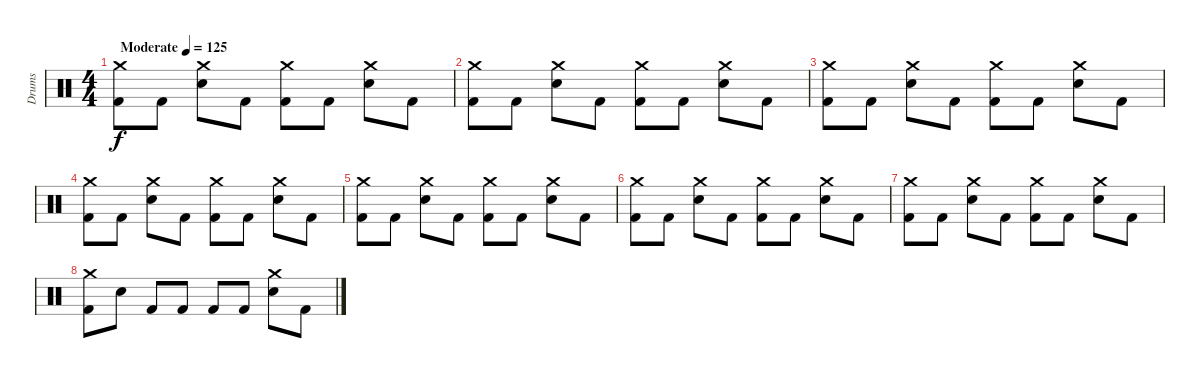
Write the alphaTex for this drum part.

\track ("Drums" "Drums") {instrument percussion}
\staff {score}
\articulation defaults
\ts (4 4)
\tempo (125 "Moderate")
\clef neutral
\ks c
("Crash medium (hit)" "Kick (hit) 2").8{dy f} "Kick (hit) 2".8 ("Crash medium (hit)" "Electric Snare (hit)").8 "Kick (hit) 2".8 ("Crash medium (hit)" "Kick (hit) 2").8 "Kick (hit) 2".8 ("Crash medium (hit)" "Electric Snare (hit)").8 "Kick (hit) 2".8 |
("Crash medium (hit)" "Kick (hit) 2").8 "Kick (hit) 2".8 ("Crash medium (hit)" "Electric Snare (hit)").8 "Kick (hit) 2".8 ("Crash medium (hit)" "Kick (hit) 2").8 "Kick (hit) 2".8 ("Crash medium (hit)" "Electric Snare (hit)").8 "Kick (hit) 2".8 |
("Crash medium (hit)" "Kick (hit) 2").8 "Kick (hit) 2".8 ("Crash medium (hit)" "Electric Snare (hit)").8 "Kick (hit) 2".8 ("Crash medium (hit)" "Kick (hit) 2").8 "Kick (hit) 2".8 ("Crash medium (hit)" "Electric Snare (hit)").8 "Kick (hit) 2".8 |
("Crash medium (hit)" "Kick (hit) 2").8 "Kick (hit) 2".8 ("Crash medium (hit)" "Electric Snare (hit)").8 "Kick (hit) 2".8 ("Crash medium (hit)" "Kick (hit) 2").8 "Kick (hit) 2".8 ("Crash medium (hit)" "Electric Snare (hit)").8 "Kick (hit) 2".8 |
("Crash medium (hit)" "Kick (hit) 2").8 "Kick (hit) 2".8 ("Crash medium (hit)" "Electric Snare (hit)").8 "Kick (hit) 2".8 ("Crash medium (hit)" "Kick (hit) 2").8 "Kick (hit) 2".8 ("Crash medium (hit)" "Electric Snare (hit)").8 "Kick (hit) 2".8 |
("Crash medium (hit)" "Kick (hit) 2").8 "Kick (hit) 2".8 ("Crash medium (hit)" "Electric Snare (hit)").8 "Kick (hit) 2".8 ("Crash medium (hit)" "Kick (hit) 2").8 "Kick (hit) 2".8 ("Crash medium (hit)" "Electric Snare (hit)").8 "Kick (hit) 2".8 |
("Crash medium (hit)" "Kick (hit) 2").8 "Kick (hit) 2".8 ("Crash medium (hit)" "Electric Snare (hit)").8 "Kick (hit) 2".8 ("Crash medium (hit)" "Kick (hit) 2").8 "Kick (hit) 2".8 ("Crash medium (hit)" "Electric Snare (hit)").8 "Kick (hit) 2".8 |
("Crash medium (hit)" "Kick (hit) 2").8 "Electric Snare (hit)".8 "Kick (hit) 2".8 "Kick (hit) 2".8 "Kick (hit) 2".8 "Kick (hit) 2".8 ("Crash medium (hit)" "Electric Snare (hit)").8 "Kick (hit) 2".8
